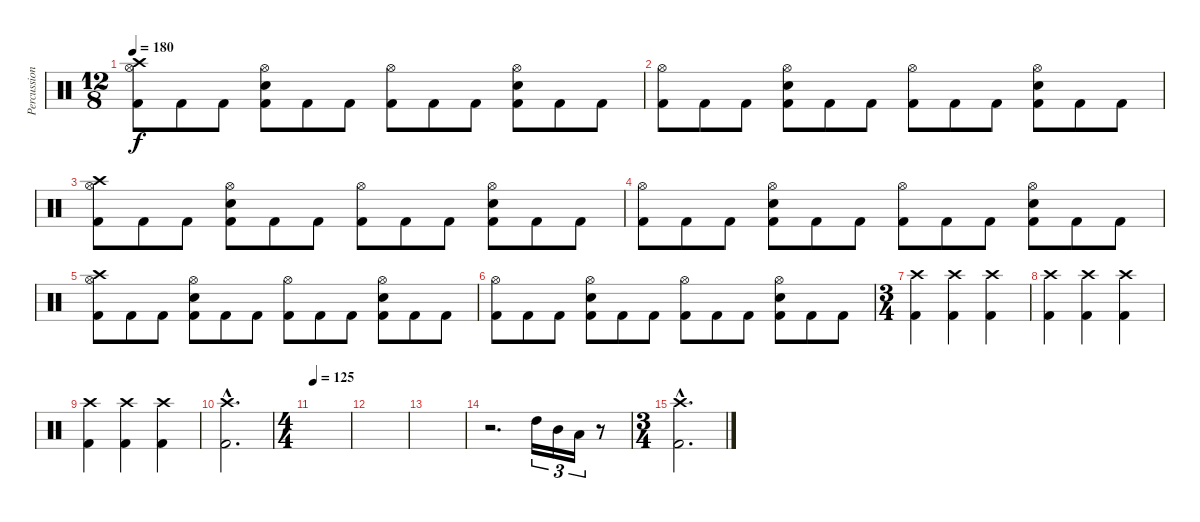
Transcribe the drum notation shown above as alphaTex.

\track ("Percussion" "Percussion") {instrument percussion}
\staff {score}
\articulation defaults
\ts (12 8)
\tempo 180
\clef neutral
\ks c
("Crash high (hit)" "Hi-Hat (open)" "Kick (hit) 2").8{dy f} "Kick (hit) 2".8 "Kick (hit) 2".8 ("Hi-Hat (open)" "Snare (hit) 2" "Kick (hit) 2").8 "Kick (hit) 2".8 "Kick (hit) 2".8 ("Hi-Hat (open)" "Kick (hit) 2").8 "Kick (hit) 2".8 "Kick (hit) 2".8 ("Hi-Hat (open)" "Snare (hit) 2" "Kick (hit) 2").8 "Kick (hit) 2".8 "Kick (hit) 2".8 |
("Hi-Hat (open)" "Kick (hit) 2").8 "Kick (hit) 2".8 "Kick (hit) 2".8 ("Hi-Hat (open)" "Snare (hit) 2" "Kick (hit) 2").8 "Kick (hit) 2".8 "Kick (hit) 2".8 ("Hi-Hat (open)" "Kick (hit) 2").8 "Kick (hit) 2".8 "Kick (hit) 2".8 ("Hi-Hat (open)" "Snare (hit) 2" "Kick (hit) 2").8 "Kick (hit) 2".8 "Kick (hit) 2".8 |
("Crash high (hit)" "Hi-Hat (open)" "Kick (hit) 2").8 "Kick (hit) 2".8 "Kick (hit) 2".8 ("Hi-Hat (open)" "Snare (hit) 2" "Kick (hit) 2").8 "Kick (hit) 2".8 "Kick (hit) 2".8 ("Hi-Hat (open)" "Kick (hit) 2").8 "Kick (hit) 2".8 "Kick (hit) 2".8 ("Hi-Hat (open)" "Snare (hit) 2" "Kick (hit) 2").8 "Kick (hit) 2".8 "Kick (hit) 2".8 |
("Hi-Hat (open)" "Kick (hit) 2").8 "Kick (hit) 2".8 "Kick (hit) 2".8 ("Hi-Hat (open)" "Snare (hit) 2" "Kick (hit) 2").8 "Kick (hit) 2".8 "Kick (hit) 2".8 ("Hi-Hat (open)" "Kick (hit) 2").8 "Kick (hit) 2".8 "Kick (hit) 2".8 ("Hi-Hat (open)" "Snare (hit) 2" "Kick (hit) 2").8 "Kick (hit) 2".8 "Kick (hit) 2".8 |
("Crash high (hit)" "Hi-Hat (open)" "Kick (hit) 2").8 "Kick (hit) 2".8 "Kick (hit) 2".8 ("Hi-Hat (open)" "Snare (hit) 2" "Kick (hit) 2").8 "Kick (hit) 2".8 "Kick (hit) 2".8 ("Hi-Hat (open)" "Kick (hit) 2").8 "Kick (hit) 2".8 "Kick (hit) 2".8 ("Hi-Hat (open)" "Snare (hit) 2" "Kick (hit) 2").8 "Kick (hit) 2".8 "Kick (hit) 2".8 |
("Hi-Hat (open)" "Kick (hit) 2").8 "Kick (hit) 2".8 "Kick (hit) 2".8 ("Hi-Hat (open)" "Snare (hit) 2" "Kick (hit) 2").8 "Kick (hit) 2".8 "Kick (hit) 2".8 ("Hi-Hat (open)" "Kick (hit) 2").8 "Kick (hit) 2".8 "Kick (hit) 2".8 ("Hi-Hat (open)" "Snare (hit) 2" "Kick (hit) 2").8 "Kick (hit) 2".8 "Kick (hit) 2".8 |
\ts (3 4)
("Crash high (hit)" "Kick (hit) 2").4 ("Crash high (hit)" "Kick (hit) 2").4 ("Crash high (hit)" "Kick (hit) 2").4 |
("Crash high (hit)" "Kick (hit) 2").4 ("Crash high (hit)" "Kick (hit) 2").4 ("Crash high (hit)" "Kick (hit) 2").4 |
("Crash high (hit)" "Kick (hit) 2").4 ("Crash high (hit)" "Kick (hit) 2").4 ("Crash high (hit)" "Kick (hit) 2").4 |
("Crash high (hit)"{hac} "Kick (hit) 2"{hac}).2{d} |
\ts (4 4)
\tempo 137
\tempo 125
|
|
|
r.2{d} "High Tom (hit)".16{tu (3 2)} "Mid Tom (hit)".16{tu (3 2)} "Low Tom (hit)".16{tu (3 2)} r.8 |
\ts (3 4)
("Crash high (hit)"{hac} "Kick (hit) 2"{hac}).2{d}
